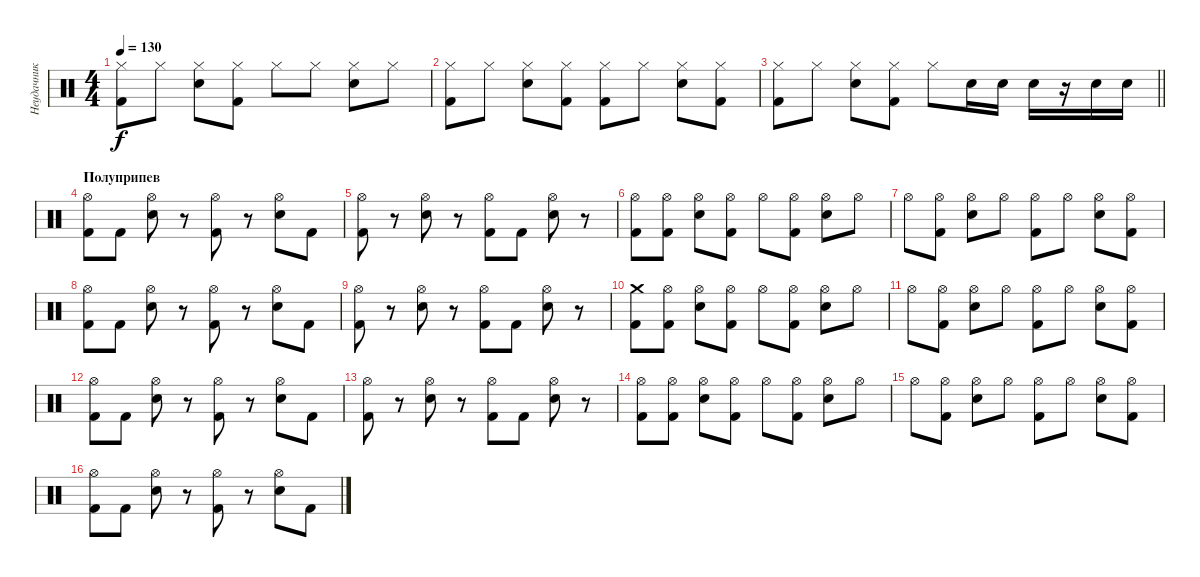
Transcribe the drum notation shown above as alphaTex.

\track ("Неудачник" "Неудачник") {instrument percussion}
\staff {score}
\articulation defaults
\ts (4 4)
\tempo 130
\clef neutral
\ks c
("Hi-Hat (closed)" "Kick (hit) 2").8{dy f} "Hi-Hat (closed)".8 ("Hi-Hat (closed)" "Electric Snare (hit)").8 ("Hi-Hat (closed)" "Kick (hit) 2").8 "Hi-Hat (closed)".8 "Hi-Hat (closed)".8 ("Hi-Hat (closed)" "Electric Snare (hit)").8 "Hi-Hat (closed)".8 |
("Hi-Hat (closed)" "Kick (hit) 2").8 "Hi-Hat (closed)".8 ("Hi-Hat (closed)" "Electric Snare (hit)").8 ("Hi-Hat (closed)" "Kick (hit) 2").8 ("Hi-Hat (closed)" "Kick (hit) 2").8 "Hi-Hat (closed)".8 ("Hi-Hat (closed)" "Electric Snare (hit)").8 ("Hi-Hat (closed)" "Kick (hit) 2").8 |
\barLineRight lightlight
("Hi-Hat (closed)" "Kick (hit) 2").8 "Hi-Hat (closed)".8 ("Hi-Hat (closed)" "Electric Snare (hit)").8 ("Hi-Hat (closed)" "Kick (hit) 2").8 "Hi-Hat (closed)".8 "Electric Snare (hit)".16 "Electric Snare (hit)".16 "Electric Snare (hit)".16 r.16 "Electric Snare (hit)".16 "Electric Snare (hit)".16 |
\section ("" "Полуприпев")
("Hi-Hat (open)" "Kick (hit) 2").8 "Kick (hit) 2".8 ("Hi-Hat (open)" "Electric Snare (hit)").8 r.8 ("Hi-Hat (open)" "Kick (hit) 2").8 r.8 ("Hi-Hat (open)" "Electric Snare (hit)").8 "Kick (hit) 2".8 |
("Hi-Hat (open)" "Kick (hit) 2").8 r.8 ("Hi-Hat (open)" "Electric Snare (hit)").8 r.8 ("Hi-Hat (open)" "Kick (hit) 2").8 "Kick (hit) 2".8 ("Hi-Hat (open)" "Electric Snare (hit)").8 r.8 |
("Hi-Hat (open)" "Kick (hit) 2").8 ("Hi-Hat (open)" "Kick (hit) 2").8 ("Hi-Hat (open)" "Electric Snare (hit)").8 ("Hi-Hat (open)" "Kick (hit) 2").8 "Hi-Hat (open)".8 ("Hi-Hat (open)" "Kick (hit) 2").8 ("Hi-Hat (open)" "Electric Snare (hit)").8 "Hi-Hat (open)".8 |
"Hi-Hat (open)".8 ("Hi-Hat (open)" "Kick (hit) 2").8 ("Hi-Hat (open)" "Electric Snare (hit)").8 "Hi-Hat (open)".8 ("Hi-Hat (open)" "Kick (hit) 2").8 "Hi-Hat (open)".8 ("Hi-Hat (open)" "Electric Snare (hit)").8 ("Hi-Hat (open)" "Kick (hit) 2").8 |
("Hi-Hat (open)" "Kick (hit) 2").8 "Kick (hit) 2".8 ("Hi-Hat (open)" "Electric Snare (hit)").8 r.8 ("Hi-Hat (open)" "Kick (hit) 2").8 r.8 ("Hi-Hat (open)" "Electric Snare (hit)").8 "Kick (hit) 2".8 |
("Hi-Hat (open)" "Kick (hit) 2").8 r.8 ("Hi-Hat (open)" "Electric Snare (hit)").8 r.8 ("Hi-Hat (open)" "Kick (hit) 2").8 "Kick (hit) 2".8 ("Hi-Hat (open)" "Electric Snare (hit)").8 r.8 |
("Crash medium (hit)" "Kick (hit) 2").8 ("Hi-Hat (open)" "Kick (hit) 2").8 ("Hi-Hat (open)" "Electric Snare (hit)").8 ("Hi-Hat (open)" "Kick (hit) 2").8 "Hi-Hat (open)".8 ("Hi-Hat (open)" "Kick (hit) 2").8 ("Hi-Hat (open)" "Electric Snare (hit)").8 "Hi-Hat (open)".8 |
"Hi-Hat (open)".8 ("Hi-Hat (open)" "Kick (hit) 2").8 ("Hi-Hat (open)" "Electric Snare (hit)").8 "Hi-Hat (open)".8 ("Hi-Hat (open)" "Kick (hit) 2").8 "Hi-Hat (open)".8 ("Hi-Hat (open)" "Electric Snare (hit)").8 ("Hi-Hat (open)" "Kick (hit) 2").8 |
("Hi-Hat (open)" "Kick (hit) 2").8 "Kick (hit) 2".8 ("Hi-Hat (open)" "Electric Snare (hit)").8 r.8 ("Hi-Hat (open)" "Kick (hit) 2").8 r.8 ("Hi-Hat (open)" "Electric Snare (hit)").8 "Kick (hit) 2".8 |
("Hi-Hat (open)" "Kick (hit) 2").8 r.8 ("Hi-Hat (open)" "Electric Snare (hit)").8 r.8 ("Hi-Hat (open)" "Kick (hit) 2").8 "Kick (hit) 2".8 ("Hi-Hat (open)" "Electric Snare (hit)").8 r.8 |
("Hi-Hat (open)" "Kick (hit) 2").8 ("Hi-Hat (open)" "Kick (hit) 2").8 ("Hi-Hat (open)" "Electric Snare (hit)").8 ("Hi-Hat (open)" "Kick (hit) 2").8 "Hi-Hat (open)".8 ("Hi-Hat (open)" "Kick (hit) 2").8 ("Hi-Hat (open)" "Electric Snare (hit)").8 "Hi-Hat (open)".8 |
"Hi-Hat (open)".8 ("Hi-Hat (open)" "Kick (hit) 2").8 ("Hi-Hat (open)" "Electric Snare (hit)").8 "Hi-Hat (open)".8 ("Hi-Hat (open)" "Kick (hit) 2").8 "Hi-Hat (open)".8 ("Hi-Hat (open)" "Electric Snare (hit)").8 ("Hi-Hat (open)" "Kick (hit) 2").8 |
("Hi-Hat (open)" "Kick (hit) 2").8 "Kick (hit) 2".8 ("Hi-Hat (open)" "Electric Snare (hit)").8 r.8 ("Hi-Hat (open)" "Kick (hit) 2").8 r.8 ("Hi-Hat (open)" "Electric Snare (hit)").8 "Kick (hit) 2".8
